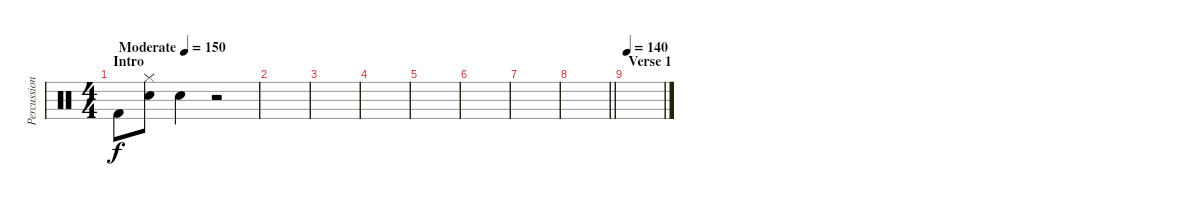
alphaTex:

\track ("Percussion" "Percussion") {instrument percussion}
\staff {score}
\articulation defaults
\ts (4 4)
\section ("" "Intro")
\tempo (150 "Moderate")
\clef neutral
\ks c "Kick (hit) 2".8{dy f}
("Hi-Hat (closed)" "Snare (hit) 2").8 "Snare (hit) 2".4 r.2 |
|
|
|
|
|
|
\barLineRight lightlight
|
\section ("" "Verse 1")
\tempo 140
